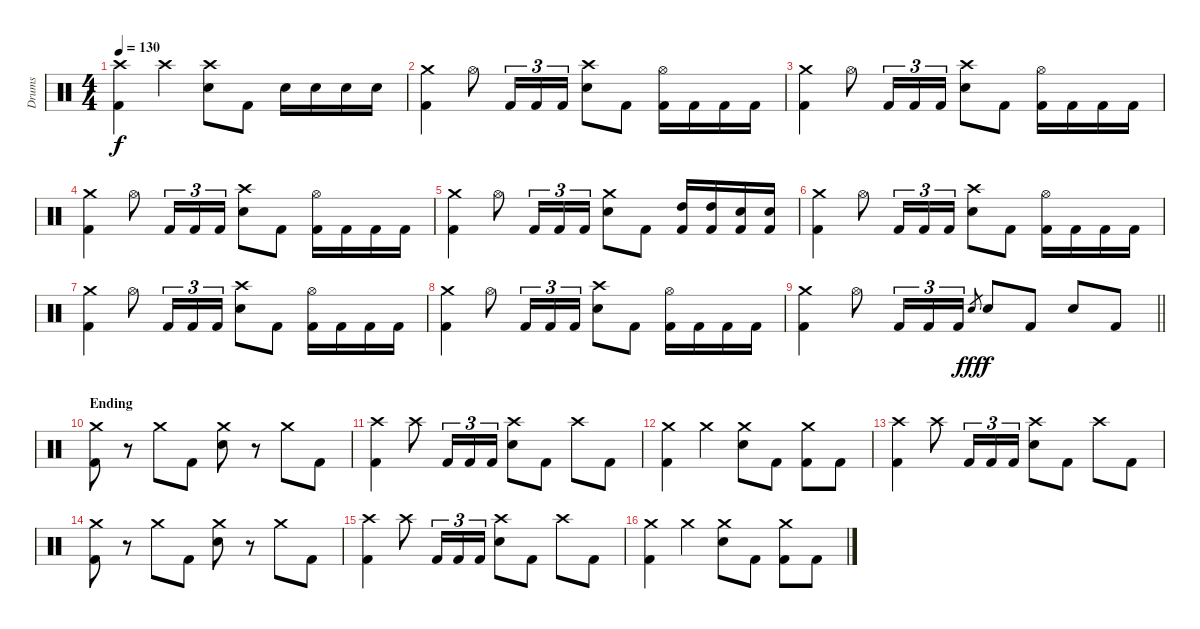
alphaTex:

\track ("Drums" "Drums") {instrument percussion}
\staff {score}
\articulation defaults
\ts (4 4)
\tempo 130
\clef neutral
\ks c
("Crash high (hit)" "Kick (hit) 2").4{dy f} "Crash high (hit)".4 ("Crash high (hit)" "Electric Snare (hit)").8 "Kick (hit) 2".8 "Electric Snare (hit)".16 "Electric Snare (hit)".16 "Electric Snare (hit)".16 "Electric Snare (hit)".16 |
("Crash medium (hit)" "Kick (hit) 2").4 "Hi-Hat (open)".8 "Kick (hit) 2".16{tu (3 2)} "Kick (hit) 2".16{tu (3 2)} "Kick (hit) 2".16{tu (3 2)} ("Crash high (hit)" "Electric Snare (hit)").8 "Kick (hit) 2".8 ("Hi-Hat (open)" "Kick (hit) 2").16 "Kick (hit) 2".16 "Kick (hit) 2".16 "Kick (hit) 2".16 |
("Crash medium (hit)" "Kick (hit) 2").4 "Hi-Hat (open)".8 "Kick (hit) 2".16{tu (3 2)} "Kick (hit) 2".16{tu (3 2)} "Kick (hit) 2".16{tu (3 2)} ("Crash high (hit)" "Electric Snare (hit)").8 "Kick (hit) 2".8 ("Hi-Hat (open)" "Kick (hit) 2").16 "Kick (hit) 2".16 "Kick (hit) 2".16 "Kick (hit) 2".16 |
("Crash medium (hit)" "Kick (hit) 2").4 "Hi-Hat (open)".8 "Kick (hit) 2".16{tu (3 2)} "Kick (hit) 2".16{tu (3 2)} "Kick (hit) 2".16{tu (3 2)} ("Crash high (hit)" "Electric Snare (hit)").8 "Kick (hit) 2".8 ("Hi-Hat (open)" "Kick (hit) 2").16 "Kick (hit) 2".16 "Kick (hit) 2".16 "Kick (hit) 2".16 |
("Crash medium (hit)" "Kick (hit) 2").4 "Hi-Hat (open)".8 "Kick (hit) 2".16{tu (3 2)} "Kick (hit) 2".16{tu (3 2)} "Kick (hit) 2".16{tu (3 2)} ("Crash medium (hit)" "Electric Snare (hit)").8 "Kick (hit) 2".8 ("High Tom (hit)" "Kick (hit) 2").16 ("High Tom (hit)" "Kick (hit) 2").16 ("Electric Snare (hit)" "Kick (hit) 2").16 ("Electric Snare (hit)" "Kick (hit) 2").16 |
("Crash medium (hit)" "Kick (hit) 2").4 "Hi-Hat (open)".8 "Kick (hit) 2".16{tu (3 2)} "Kick (hit) 2".16{tu (3 2)} "Kick (hit) 2".16{tu (3 2)} ("Crash high (hit)" "Electric Snare (hit)").8 "Kick (hit) 2".8 ("Hi-Hat (open)" "Kick (hit) 2").16 "Kick (hit) 2".16 "Kick (hit) 2".16 "Kick (hit) 2".16 |
("Crash medium (hit)" "Kick (hit) 2").4 "Hi-Hat (open)".8 "Kick (hit) 2".16{tu (3 2)} "Kick (hit) 2".16{tu (3 2)} "Kick (hit) 2".16{tu (3 2)} ("Crash high (hit)" "Electric Snare (hit)").8 "Kick (hit) 2".8 ("Hi-Hat (open)" "Kick (hit) 2").16 "Kick (hit) 2".16 "Kick (hit) 2".16 "Kick (hit) 2".16 |
("Crash medium (hit)" "Kick (hit) 2").4 "Hi-Hat (open)".8 "Kick (hit) 2".16{tu (3 2)} "Kick (hit) 2".16{tu (3 2)} "Kick (hit) 2".16{tu (3 2)} ("Crash high (hit)" "Electric Snare (hit)").8 "Kick (hit) 2".8 ("Hi-Hat (open)" "Kick (hit) 2").16 "Kick (hit) 2".16 "Kick (hit) 2".16 "Kick (hit) 2".16 |
\barLineRight lightlight
("Crash medium (hit)" "Kick (hit) 2").4 "Hi-Hat (open)".8 "Kick (hit) 2".16{tu (3 2)} "Kick (hit) 2".16{tu (3 2)} "Kick (hit) 2".16{tu (3 2)} "Electric Snare (hit)".8{gr dy fff} "Electric Snare (hit)".8{dy f} "Kick (hit) 2".8 "Electric Snare (hit)".8 "Kick (hit) 2".8 |
\section ("" "Ending")
("Crash medium (hit)" "Kick (hit) 2").8 r.8 "Crash medium (hit)".8 "Kick (hit) 2".8 ("Crash medium (hit)" "Electric Snare (hit)").8 r.8 "Crash medium (hit)".8 "Kick (hit) 2".8 |
("Crash high (hit)" "Kick (hit) 2").4 "Crash high (hit)".8 "Kick (hit) 2".16{tu (3 2)} "Kick (hit) 2".16{tu (3 2)} "Kick (hit) 2".16{tu (3 2)} ("Crash high (hit)" "Electric Snare (hit)").8 "Kick (hit) 2".8 "Crash high (hit)".8 "Kick (hit) 2".8 |
("Crash medium (hit)" "Kick (hit) 2").4 "Crash medium (hit)".4 ("Crash medium (hit)" "Electric Snare (hit)").8 "Kick (hit) 2".8 ("Crash medium (hit)" "Kick (hit) 2").8 "Kick (hit) 2".8 |
("Crash high (hit)" "Kick (hit) 2").4 "Crash high (hit)".8 "Kick (hit) 2".16{tu (3 2)} "Kick (hit) 2".16{tu (3 2)} "Kick (hit) 2".16{tu (3 2)} ("Crash high (hit)" "Electric Snare (hit)").8 "Kick (hit) 2".8 "Crash high (hit)".8 "Kick (hit) 2".8 |
("Crash medium (hit)" "Kick (hit) 2").8 r.8 "Crash medium (hit)".8 "Kick (hit) 2".8 ("Crash medium (hit)" "Electric Snare (hit)").8 r.8 "Crash medium (hit)".8 "Kick (hit) 2".8 |
("Crash high (hit)" "Kick (hit) 2").4 "Crash high (hit)".8 "Kick (hit) 2".16{tu (3 2)} "Kick (hit) 2".16{tu (3 2)} "Kick (hit) 2".16{tu (3 2)} ("Crash high (hit)" "Electric Snare (hit)").8 "Kick (hit) 2".8 "Crash high (hit)".8 "Kick (hit) 2".8 |
("Crash medium (hit)" "Kick (hit) 2").4 "Crash medium (hit)".4 ("Crash medium (hit)" "Electric Snare (hit)").8 "Kick (hit) 2".8 ("Crash medium (hit)" "Kick (hit) 2").8 "Kick (hit) 2".8
